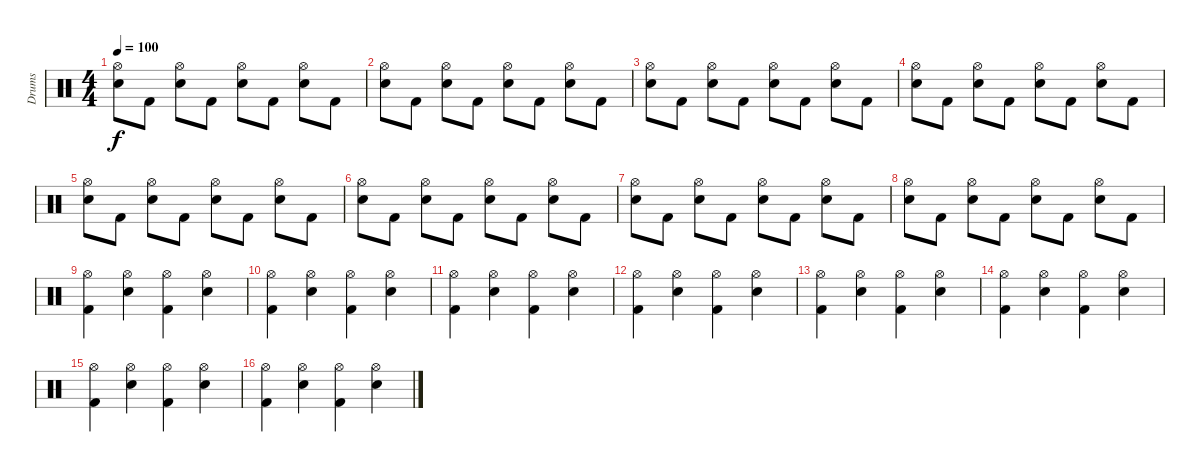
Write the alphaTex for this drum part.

\track ("Drums" "Drums") {instrument percussion}
\staff {score}
\articulation defaults
\ts (4 4)
\tempo 100
\clef neutral
\ks c
("Hi-Hat (open)" "Snare (hit) 2").8{dy f volume 14} "Kick (hit) 2".8 ("Hi-Hat (open)" "Snare (hit) 2").8 "Kick (hit) 2".8 ("Hi-Hat (open)" "Snare (hit) 2").8 "Kick (hit) 2".8 ("Hi-Hat (open)" "Snare (hit) 2").8 "Kick (hit) 2".8 |
("Hi-Hat (open)" "Snare (hit) 2").8 "Kick (hit) 2".8 ("Hi-Hat (open)" "Snare (hit) 2").8 "Kick (hit) 2".8 ("Hi-Hat (open)" "Snare (hit) 2").8 "Kick (hit) 2".8 ("Hi-Hat (open)" "Snare (hit) 2").8 "Kick (hit) 2".8 |
("Hi-Hat (open)" "Snare (hit) 2").8 "Kick (hit) 2".8 ("Hi-Hat (open)" "Snare (hit) 2").8 "Kick (hit) 2".8 ("Hi-Hat (open)" "Snare (hit) 2").8 "Kick (hit) 2".8 ("Hi-Hat (open)" "Snare (hit) 2").8 "Kick (hit) 2".8 |
("Hi-Hat (open)" "Snare (hit) 2").8 "Kick (hit) 2".8 ("Hi-Hat (open)" "Snare (hit) 2").8 "Kick (hit) 2".8 ("Hi-Hat (open)" "Snare (hit) 2").8 "Kick (hit) 2".8 ("Hi-Hat (open)" "Snare (hit) 2").8 "Kick (hit) 2".8 |
("Hi-Hat (open)" "Snare (hit) 2").8 "Kick (hit) 2".8 ("Hi-Hat (open)" "Snare (hit) 2").8 "Kick (hit) 2".8 ("Hi-Hat (open)" "Snare (hit) 2").8 "Kick (hit) 2".8 ("Hi-Hat (open)" "Snare (hit) 2").8 "Kick (hit) 2".8 |
("Hi-Hat (open)" "Snare (hit) 2").8 "Kick (hit) 2".8 ("Hi-Hat (open)" "Snare (hit) 2").8 "Kick (hit) 2".8 ("Hi-Hat (open)" "Snare (hit) 2").8 "Kick (hit) 2".8 ("Hi-Hat (open)" "Snare (hit) 2").8 "Kick (hit) 2".8 |
("Hi-Hat (open)" "Snare (hit) 2").8 "Kick (hit) 2".8 ("Hi-Hat (open)" "Snare (hit) 2").8 "Kick (hit) 2".8 ("Hi-Hat (open)" "Snare (hit) 2").8 "Kick (hit) 2".8 ("Hi-Hat (open)" "Snare (hit) 2").8 "Kick (hit) 2".8 |
("Hi-Hat (open)" "Snare (hit) 2").8 "Kick (hit) 2".8 ("Hi-Hat (open)" "Snare (hit) 2").8 "Kick (hit) 2".8 ("Hi-Hat (open)" "Snare (hit) 2").8 "Kick (hit) 2".8 ("Hi-Hat (open)" "Snare (hit) 2").8 "Kick (hit) 2".8 |
("Hi-Hat (open)" "Kick (hit) 2").4 ("Hi-Hat (open)" "Snare (hit) 2").4 ("Hi-Hat (open)" "Kick (hit) 2").4 ("Hi-Hat (open)" "Snare (hit) 2").4 |
("Hi-Hat (open)" "Kick (hit) 2").4 ("Hi-Hat (open)" "Snare (hit) 2").4 ("Hi-Hat (open)" "Kick (hit) 2").4 ("Hi-Hat (open)" "Snare (hit) 2").4 |
("Hi-Hat (open)" "Kick (hit) 2").4 ("Hi-Hat (open)" "Snare (hit) 2").4 ("Hi-Hat (open)" "Kick (hit) 2").4 ("Hi-Hat (open)" "Snare (hit) 2").4 |
("Hi-Hat (open)" "Kick (hit) 2").4 ("Hi-Hat (open)" "Snare (hit) 2").4 ("Hi-Hat (open)" "Kick (hit) 2").4 ("Hi-Hat (open)" "Snare (hit) 2").4 |
("Hi-Hat (open)" "Kick (hit) 2").4 ("Hi-Hat (open)" "Snare (hit) 2").4 ("Hi-Hat (open)" "Kick (hit) 2").4 ("Hi-Hat (open)" "Snare (hit) 2").4 |
("Hi-Hat (open)" "Kick (hit) 2").4 ("Hi-Hat (open)" "Snare (hit) 2").4 ("Hi-Hat (open)" "Kick (hit) 2").4 ("Hi-Hat (open)" "Snare (hit) 2").4 |
("Hi-Hat (open)" "Kick (hit) 2").4 ("Hi-Hat (open)" "Snare (hit) 2").4 ("Hi-Hat (open)" "Kick (hit) 2").4 ("Hi-Hat (open)" "Snare (hit) 2").4 |
("Hi-Hat (open)" "Kick (hit) 2").4 ("Hi-Hat (open)" "Snare (hit) 2").4 ("Hi-Hat (open)" "Kick (hit) 2").4 ("Hi-Hat (open)" "Snare (hit) 2").4
